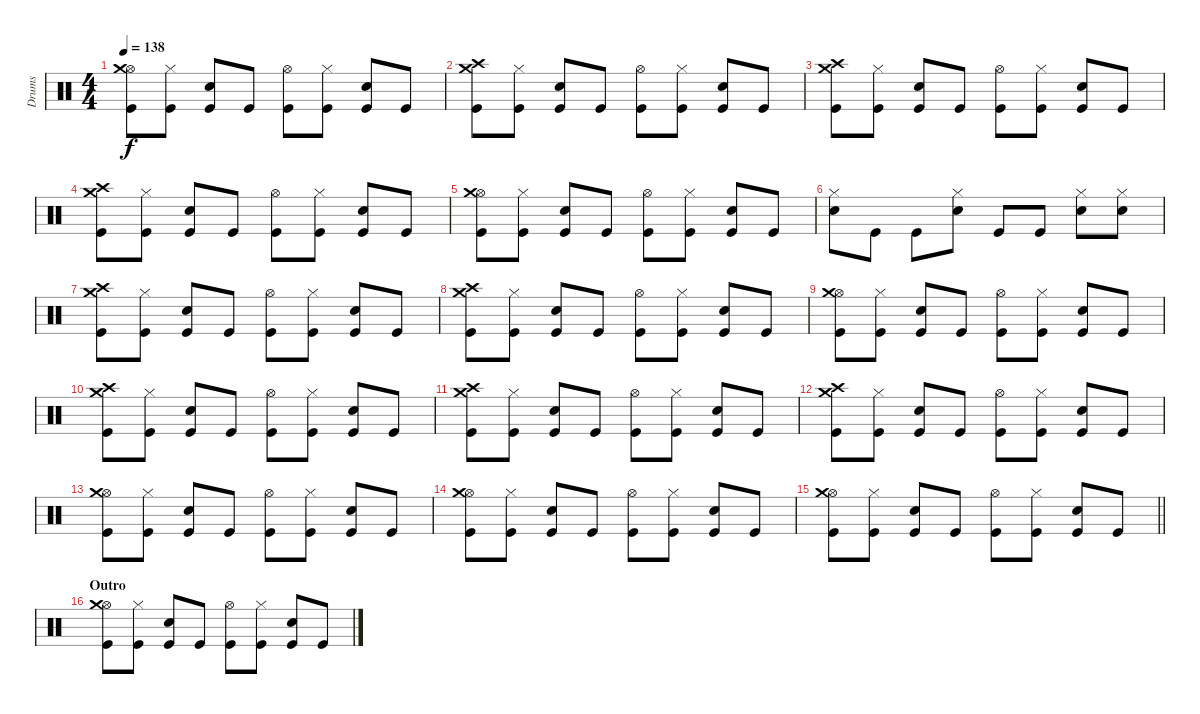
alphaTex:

\track ("Drums" "Drums") {instrument percussion}
\staff {score}
\articulation defaults
\ts (4 4)
\tempo 138
\clef neutral
\ks c
("Kick (hit)" "Hi-Hat (open)" "Crash medium (hit)").8{dy f} ("Hi-Hat (closed)" "Kick (hit)").8 ("Electric Snare (hit)" "Kick (hit)").8 "Kick (hit)".8 ("Hi-Hat (open)" "Kick (hit)").8 ("Hi-Hat (closed)" "Kick (hit)").8 ("Electric Snare (hit)" "Kick (hit)").8 "Kick (hit)".8 |
("Kick (hit)" "Crash high (hit)" "Crash medium (hit)").8 ("Hi-Hat (closed)" "Kick (hit)").8 ("Electric Snare (hit)" "Kick (hit)").8 "Kick (hit)".8 ("Hi-Hat (open)" "Kick (hit)").8 ("Hi-Hat (closed)" "Kick (hit)").8 ("Electric Snare (hit)" "Kick (hit)").8 "Kick (hit)".8 |
("Kick (hit)" "Crash high (hit)" "Crash medium (hit)").8 ("Hi-Hat (closed)" "Kick (hit)").8 ("Electric Snare (hit)" "Kick (hit)").8 "Kick (hit)".8 ("Hi-Hat (open)" "Kick (hit)").8 ("Hi-Hat (closed)" "Kick (hit)").8 ("Electric Snare (hit)" "Kick (hit)").8 "Kick (hit)".8 |
("Kick (hit)" "Crash high (hit)" "Crash medium (hit)").8 ("Hi-Hat (closed)" "Kick (hit)").8 ("Electric Snare (hit)" "Kick (hit)").8 "Kick (hit)".8 ("Hi-Hat (open)" "Kick (hit)").8 ("Hi-Hat (closed)" "Kick (hit)").8 ("Electric Snare (hit)" "Kick (hit)").8 "Kick (hit)".8 |
("Kick (hit)" "Hi-Hat (open)" "Crash medium (hit)").8 ("Hi-Hat (closed)" "Kick (hit)").8 ("Electric Snare (hit)" "Kick (hit)").8 "Kick (hit)".8 ("Hi-Hat (open)" "Kick (hit)").8 ("Hi-Hat (closed)" "Kick (hit)").8 ("Electric Snare (hit)" "Kick (hit)").8 "Kick (hit)".8 |
("Electric Snare (hit)" "Hi-Hat (closed)").8 "Kick (hit)".8 "Kick (hit)".8 ("Electric Snare (hit)" "Hi-Hat (closed)").8 "Kick (hit)".8 "Kick (hit)".8 ("Electric Snare (hit)" "Hi-Hat (closed)").8 ("Electric Snare (hit)" "Hi-Hat (closed)").8 |
("Kick (hit)" "Crash high (hit)" "Crash medium (hit)").8 ("Hi-Hat (closed)" "Kick (hit)").8 ("Electric Snare (hit)" "Kick (hit)").8 "Kick (hit)".8 ("Hi-Hat (open)" "Kick (hit)").8 ("Hi-Hat (closed)" "Kick (hit)").8 ("Electric Snare (hit)" "Kick (hit)").8 "Kick (hit)".8 |
("Kick (hit)" "Crash high (hit)" "Crash medium (hit)").8 ("Hi-Hat (closed)" "Kick (hit)").8 ("Electric Snare (hit)" "Kick (hit)").8 "Kick (hit)".8 ("Hi-Hat (open)" "Kick (hit)").8 ("Hi-Hat (closed)" "Kick (hit)").8 ("Electric Snare (hit)" "Kick (hit)").8 "Kick (hit)".8 |
("Kick (hit)" "Hi-Hat (open)" "Crash medium (hit)").8 ("Hi-Hat (closed)" "Kick (hit)").8 ("Electric Snare (hit)" "Kick (hit)").8 "Kick (hit)".8 ("Hi-Hat (open)" "Kick (hit)").8 ("Hi-Hat (closed)" "Kick (hit)").8 ("Electric Snare (hit)" "Kick (hit)").8 "Kick (hit)".8 |
("Kick (hit)" "Crash high (hit)" "Crash medium (hit)").8 ("Hi-Hat (closed)" "Kick (hit)").8 ("Electric Snare (hit)" "Kick (hit)").8 "Kick (hit)".8 ("Hi-Hat (open)" "Kick (hit)").8 ("Hi-Hat (closed)" "Kick (hit)").8 ("Electric Snare (hit)" "Kick (hit)").8 "Kick (hit)".8 |
("Kick (hit)" "Crash high (hit)" "Crash medium (hit)").8 ("Hi-Hat (closed)" "Kick (hit)").8 ("Electric Snare (hit)" "Kick (hit)").8 "Kick (hit)".8 ("Hi-Hat (open)" "Kick (hit)").8 ("Hi-Hat (closed)" "Kick (hit)").8 ("Electric Snare (hit)" "Kick (hit)").8 "Kick (hit)".8 |
("Kick (hit)" "Crash high (hit)" "Crash medium (hit)").8 ("Hi-Hat (closed)" "Kick (hit)").8 ("Electric Snare (hit)" "Kick (hit)").8 "Kick (hit)".8 ("Hi-Hat (open)" "Kick (hit)").8 ("Hi-Hat (closed)" "Kick (hit)").8 ("Electric Snare (hit)" "Kick (hit)").8 "Kick (hit)".8 |
("Kick (hit)" "Hi-Hat (open)" "Crash medium (hit)").8 ("Hi-Hat (closed)" "Kick (hit)").8 ("Electric Snare (hit)" "Kick (hit)").8 "Kick (hit)".8 ("Hi-Hat (open)" "Kick (hit)").8 ("Hi-Hat (closed)" "Kick (hit)").8 ("Electric Snare (hit)" "Kick (hit)").8 "Kick (hit)".8 |
("Kick (hit)" "Hi-Hat (open)" "Crash medium (hit)").8 ("Hi-Hat (closed)" "Kick (hit)").8 ("Electric Snare (hit)" "Kick (hit)").8 "Kick (hit)".8 ("Hi-Hat (open)" "Kick (hit)").8 ("Hi-Hat (closed)" "Kick (hit)").8 ("Electric Snare (hit)" "Kick (hit)").8 "Kick (hit)".8 |
\barLineRight lightlight
("Kick (hit)" "Hi-Hat (open)" "Crash medium (hit)").8 ("Hi-Hat (closed)" "Kick (hit)").8 ("Electric Snare (hit)" "Kick (hit)").8 "Kick (hit)".8 ("Hi-Hat (open)" "Kick (hit)").8 ("Hi-Hat (closed)" "Kick (hit)").8 ("Electric Snare (hit)" "Kick (hit)").8 "Kick (hit)".8 |
\section ("" "Outro")
("Kick (hit)" "Hi-Hat (open)" "Crash medium (hit)").8 ("Hi-Hat (closed)" "Kick (hit)").8 ("Electric Snare (hit)" "Kick (hit)").8 "Kick (hit)".8 ("Hi-Hat (open)" "Kick (hit)").8 ("Hi-Hat (closed)" "Kick (hit)").8 ("Electric Snare (hit)" "Kick (hit)").8 "Kick (hit)".8
